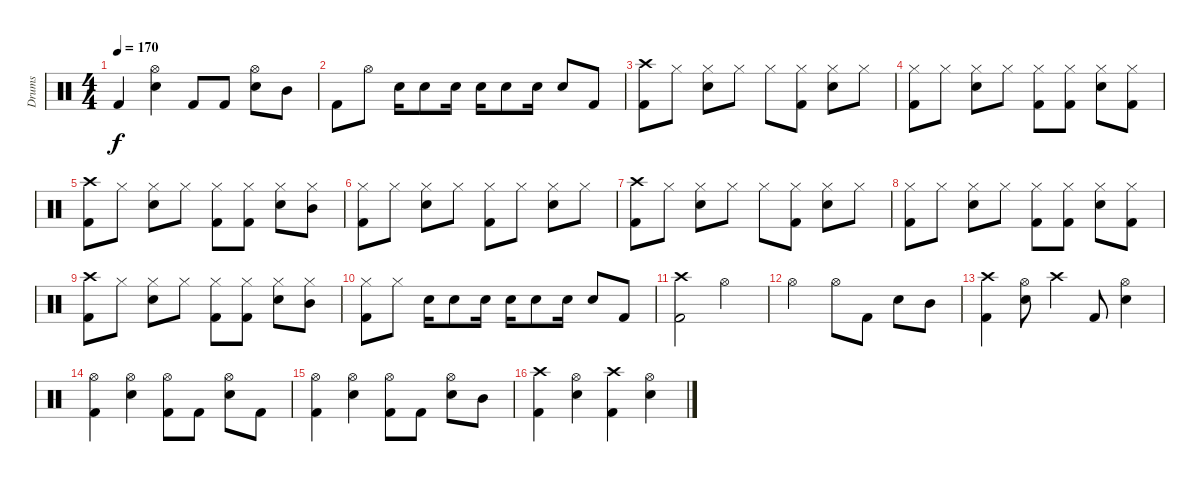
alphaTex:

\track ("Drums" "Drums") {instrument percussion}
\staff {score}
\articulation defaults
\ts (4 4)
\tempo 170
\clef neutral
\ks c "Kick (hit) 2".4{dy f}
("Hi-Hat (open)" "Snare (hit) 2").4 "Kick (hit) 2".8 "Kick (hit) 2".8 ("Hi-Hat (open)" "Snare (hit) 2").8 "Mid Tom (hit)".8 |
"Kick (hit) 2".8 "Hi-Hat (open)".8 "Snare (hit) 2".16 "Snare (hit) 2".8 "Snare (hit) 2".16 "Snare (hit) 2".16 "Snare (hit) 2".8 "Snare (hit) 2".16 "Snare (hit) 2".8 "Kick (hit) 2".8 |
("Crash high (hit)" "Kick (hit) 2").8 "Hi-Hat (closed)".8 ("Hi-Hat (closed)" "Snare (hit) 2").8 "Hi-Hat (closed)".8 "Hi-Hat (closed)".8 ("Hi-Hat (closed)" "Kick (hit) 2").8 ("Hi-Hat (closed)" "Snare (hit) 2").8 "Hi-Hat (closed)".8 |
("Hi-Hat (closed)" "Kick (hit) 2").8 "Hi-Hat (closed)".8 ("Hi-Hat (closed)" "Snare (hit) 2").8 "Hi-Hat (closed)".8 ("Hi-Hat (closed)" "Kick (hit) 2").8 ("Hi-Hat (closed)" "Kick (hit) 2").8 ("Hi-Hat (closed)" "Snare (hit) 2").8 ("Hi-Hat (closed)" "Kick (hit) 2").8 |
("Crash high (hit)" "Kick (hit) 2").8 "Hi-Hat (closed)".8 ("Hi-Hat (closed)" "Snare (hit) 2").8 "Hi-Hat (closed)".8 ("Hi-Hat (closed)" "Kick (hit) 2").8 ("Hi-Hat (closed)" "Kick (hit) 2").8 ("Hi-Hat (closed)" "Snare (hit) 2").8 ("Hi-Hat (closed)" "Mid Tom (hit)").8 |
("Hi-Hat (closed)" "Kick (hit) 2").8 "Hi-Hat (closed)".8 ("Hi-Hat (closed)" "Snare (hit) 2").8 "Hi-Hat (closed)".8 ("Hi-Hat (closed)" "Kick (hit) 2").8 "Hi-Hat (closed)".8 ("Hi-Hat (closed)" "Snare (hit) 2").8 "Hi-Hat (closed)".8 |
("Crash high (hit)" "Kick (hit) 2").8 "Hi-Hat (closed)".8 ("Hi-Hat (closed)" "Snare (hit) 2").8 "Hi-Hat (closed)".8 "Hi-Hat (closed)".8 ("Hi-Hat (closed)" "Kick (hit) 2").8 ("Hi-Hat (closed)" "Snare (hit) 2").8 "Hi-Hat (closed)".8 |
("Hi-Hat (closed)" "Kick (hit) 2").8 "Hi-Hat (closed)".8 ("Hi-Hat (closed)" "Snare (hit) 2").8 "Hi-Hat (closed)".8 ("Hi-Hat (closed)" "Kick (hit) 2").8 ("Hi-Hat (closed)" "Kick (hit) 2").8 ("Hi-Hat (closed)" "Snare (hit) 2").8 ("Hi-Hat (closed)" "Kick (hit) 2").8 |
("Crash high (hit)" "Kick (hit) 2").8 "Hi-Hat (closed)".8 ("Hi-Hat (closed)" "Snare (hit) 2").8 "Hi-Hat (closed)".8 ("Hi-Hat (closed)" "Kick (hit) 2").8 ("Hi-Hat (closed)" "Kick (hit) 2").8 ("Hi-Hat (closed)" "Snare (hit) 2").8 ("Hi-Hat (closed)" "Mid Tom (hit)").8 |
("Hi-Hat (closed)" "Kick (hit) 2").8 "Hi-Hat (closed)".8 "Snare (hit) 2".16 "Snare (hit) 2".8 "Snare (hit) 2".16 "Snare (hit) 2".16 "Snare (hit) 2".8 "Snare (hit) 2".16 "Snare (hit) 2".8 "Kick (hit) 2".8 |
("Crash high (hit)" "Kick (hit) 2").2 "Hi-Hat (open)".2 |
"Hi-Hat (open)".2 "Hi-Hat (open)".8 "Kick (hit) 2".8 "Snare (hit) 2".8 "Mid Tom (hit)".8 |
("Crash high (hit)" "Kick (hit) 2").4 ("Hi-Hat (open)" "Snare (hit) 2").8 "Crash high (hit)".4 "Kick (hit) 2".8 ("Hi-Hat (open)" "Snare (hit) 2").4 |
("Hi-Hat (open)" "Kick (hit) 2").4 ("Hi-Hat (open)" "Snare (hit) 2").4 ("Hi-Hat (open)" "Kick (hit) 2").8 "Kick (hit) 2".8 ("Hi-Hat (open)" "Snare (hit) 2").8 "Kick (hit) 2".8 |
("Hi-Hat (open)" "Kick (hit) 2").4 ("Hi-Hat (open)" "Snare (hit) 2").4 ("Hi-Hat (open)" "Kick (hit) 2").8 "Kick (hit) 2".8 ("Hi-Hat (open)" "Snare (hit) 2").8 "Mid Tom (hit)".8 |
("Crash high (hit)" "Kick (hit) 2").4 ("Hi-Hat (open)" "Snare (hit) 2").4 ("Crash high (hit)" "Kick (hit) 2").4 ("Hi-Hat (open)" "Snare (hit) 2").4
